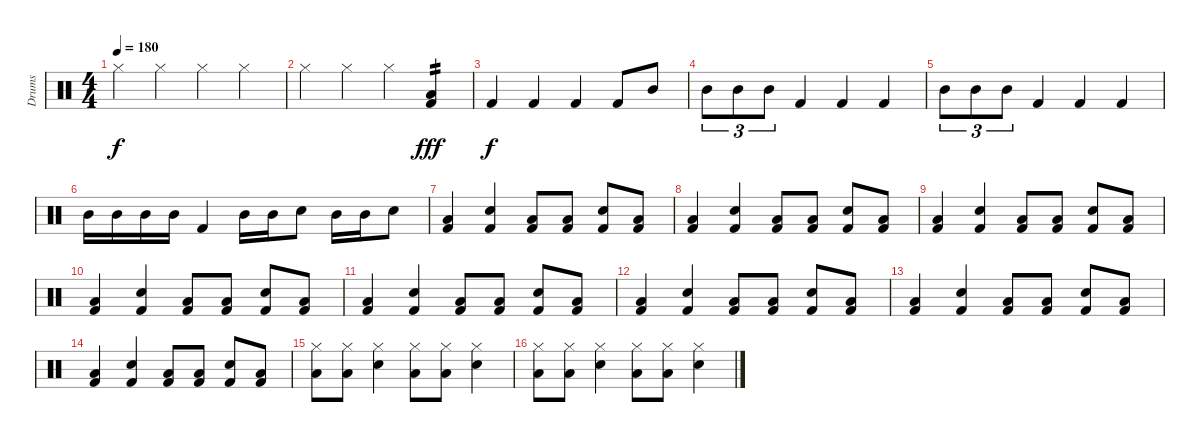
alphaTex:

\track ("Drums" "Drums") {instrument percussion}
\staff {score}
\articulation defaults
\ts (4 4)
\tempo 180
\clef neutral
\ks c "Hi-Hat (closed)".4{dy f} "Hi-Hat (closed)".4 "Hi-Hat (closed)".4 "Hi-Hat (closed)".4
|
"Hi-Hat (closed)".4 "Hi-Hat (closed)".4 "Hi-Hat (closed)".4 ("Low Tom (hit)" "Kick (hit) 2").4{tp 2 dy fff} |
"Kick (hit) 2".4{dy f} "Kick (hit) 2".4 "Kick (hit) 2".4 "Kick (hit) 2".8 "Mid Tom (hit)".8 |
"Mid Tom (hit)".8{tu (3 2)} "Mid Tom (hit)".8{tu (3 2)} "Mid Tom (hit)".8{tu (3 2)} "Kick (hit) 2".4 "Kick (hit) 2".4 "Kick (hit) 2".4 |
"Mid Tom (hit)".8{tu (3 2)} "Mid Tom (hit)".8{tu (3 2)} "Mid Tom (hit)".8{tu (3 2)} "Kick (hit) 2".4 "Kick (hit) 2".4 "Kick (hit) 2".4 |
"Mid Tom (hit)".16 "Mid Tom (hit)".16 "Mid Tom (hit)".16 "Mid Tom (hit)".16 "Kick (hit) 2".4 "Mid Tom (hit)".16 "Mid Tom (hit)".16 "Electric Snare (hit)".8 "Mid Tom (hit)".16 "Mid Tom (hit)".16 "Electric Snare (hit)".8 |
("Kick (hit) 2" "Low Tom (hit)").4 ("Kick (hit) 2" "Electric Snare (hit)").4 ("Kick (hit) 2" "Low Tom (hit)").8 ("Kick (hit) 2" "Low Tom (hit)").8 ("Kick (hit) 2" "Electric Snare (hit)").8 ("Kick (hit) 2" "Low Tom (hit)").8 |
("Kick (hit) 2" "Low Tom (hit)").4 ("Kick (hit) 2" "Electric Snare (hit)").4 ("Kick (hit) 2" "Low Tom (hit)").8 ("Kick (hit) 2" "Low Tom (hit)").8 ("Kick (hit) 2" "Electric Snare (hit)").8 ("Kick (hit) 2" "Low Tom (hit)").8 |
("Kick (hit) 2" "Low Tom (hit)").4 ("Kick (hit) 2" "Electric Snare (hit)").4 ("Kick (hit) 2" "Low Tom (hit)").8 ("Kick (hit) 2" "Low Tom (hit)").8 ("Kick (hit) 2" "Electric Snare (hit)").8 ("Kick (hit) 2" "Low Tom (hit)").8 |
("Kick (hit) 2" "Low Tom (hit)").4 ("Kick (hit) 2" "Electric Snare (hit)").4 ("Kick (hit) 2" "Low Tom (hit)").8 ("Kick (hit) 2" "Low Tom (hit)").8 ("Kick (hit) 2" "Electric Snare (hit)").8 ("Kick (hit) 2" "Low Tom (hit)").8 |
("Kick (hit) 2" "Low Tom (hit)").4 ("Kick (hit) 2" "Electric Snare (hit)").4 ("Kick (hit) 2" "Low Tom (hit)").8 ("Kick (hit) 2" "Low Tom (hit)").8 ("Kick (hit) 2" "Electric Snare (hit)").8 ("Kick (hit) 2" "Low Tom (hit)").8 |
("Kick (hit) 2" "Low Tom (hit)").4 ("Kick (hit) 2" "Electric Snare (hit)").4 ("Kick (hit) 2" "Low Tom (hit)").8 ("Kick (hit) 2" "Low Tom (hit)").8 ("Kick (hit) 2" "Electric Snare (hit)").8 ("Kick (hit) 2" "Low Tom (hit)").8 |
("Kick (hit) 2" "Low Tom (hit)").4 ("Kick (hit) 2" "Electric Snare (hit)").4 ("Kick (hit) 2" "Low Tom (hit)").8 ("Kick (hit) 2" "Low Tom (hit)").8 ("Kick (hit) 2" "Electric Snare (hit)").8 ("Kick (hit) 2" "Low Tom (hit)").8 |
("Kick (hit) 2" "Low Tom (hit)").4 ("Kick (hit) 2" "Electric Snare (hit)").4 ("Kick (hit) 2" "Low Tom (hit)").8 ("Kick (hit) 2" "Low Tom (hit)").8 ("Kick (hit) 2" "Electric Snare (hit)").8 ("Kick (hit) 2" "Low Tom (hit)").8 |
("Hi-Hat (closed)" "Low Tom (hit)").8 ("Hi-Hat (closed)" "Low Tom (hit)").8 ("Hi-Hat (closed)" "Electric Snare (hit)").4 ("Hi-Hat (closed)" "Low Tom (hit)").8 ("Hi-Hat (closed)" "Low Tom (hit)").8 ("Hi-Hat (closed)" "Electric Snare (hit)").4 |
("Hi-Hat (closed)" "Low Tom (hit)").8 ("Hi-Hat (closed)" "Low Tom (hit)").8 ("Hi-Hat (closed)" "Electric Snare (hit)").4 ("Hi-Hat (closed)" "Low Tom (hit)").8 ("Hi-Hat (closed)" "Low Tom (hit)").8 ("Hi-Hat (closed)" "Electric Snare (hit)").4
